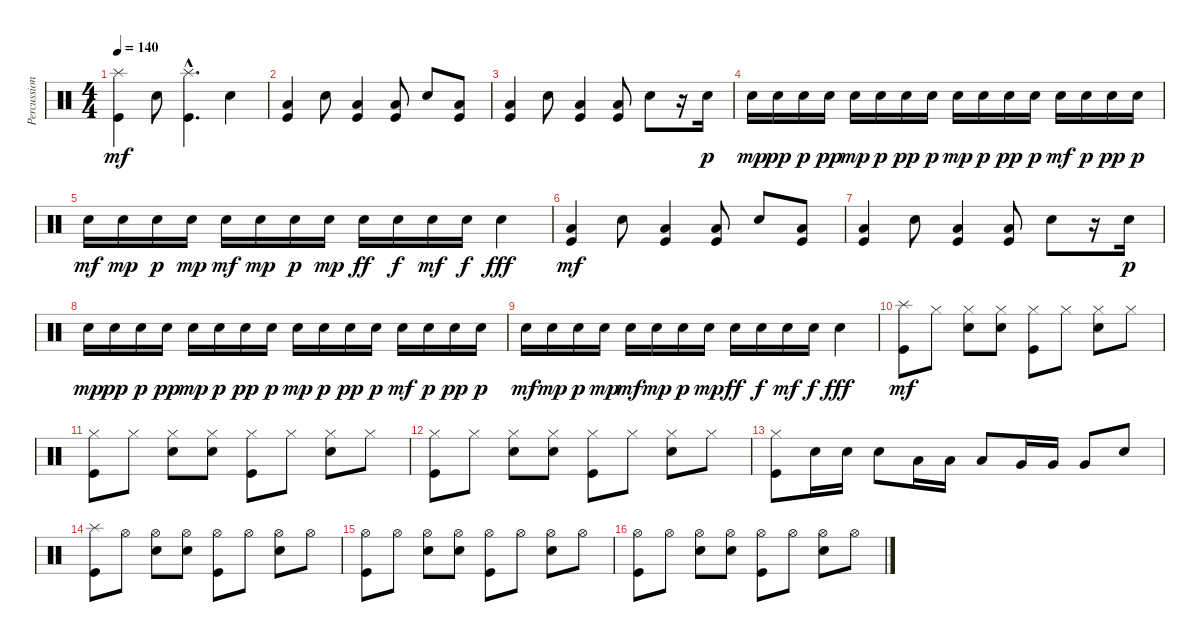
\track ("Percussion" "Percussion") {instrument percussion}
\staff {score}
\articulation defaults
\ts (4 4)
\tempo 140
\clef neutral
\ks c
("Splash (hit)" "Kick (hit)").4{dy mf} "Snare (hit) 2".8 ("Splash (hit)"{hac} "Kick (hit)"{hac}).4{d} "Snare (hit) 2".4 |
("Low Tom (hit)" "Kick (hit)").4 "Snare (hit) 2".8 ("Low Tom (hit)" "Kick (hit)").4 ("Low Tom (hit)" "Kick (hit)").8 "Snare (hit) 2".8 ("Low Tom (hit)" "Kick (hit)").8 |
("Low Tom (hit)" "Kick (hit)").4 "Snare (hit) 2".8 ("Low Tom (hit)" "Kick (hit)").4 ("Low Tom (hit)" "Kick (hit)").8 "Snare (hit) 2".8 r.16 "Snare (hit) 2".16{dy p} |
"Snare (hit) 2".16{dy mp} "Snare (hit) 2".16{dy pp} "Snare (hit) 2".16{dy p} "Snare (hit) 2".16{dy pp} "Snare (hit) 2".16{dy mp} "Snare (hit) 2".16{dy p} "Snare (hit) 2".16{dy pp} "Snare (hit) 2".16{dy p} "Snare (hit) 2".16{dy mp} "Snare (hit) 2".16{dy p} "Snare (hit) 2".16{dy pp} "Snare (hit) 2".16{dy p} "Snare (hit) 2".16{dy mf} "Snare (hit) 2".16{dy p} "Snare (hit) 2".16{dy pp} "Snare (hit) 2".16{dy p} |
"Snare (hit) 2".16{dy mf} "Snare (hit) 2".16{dy mp} "Snare (hit) 2".16{dy p} "Snare (hit) 2".16{dy mp} "Snare (hit) 2".16{dy mf} "Snare (hit) 2".16{dy mp} "Snare (hit) 2".16{dy p} "Snare (hit) 2".16{dy mp} "Snare (hit) 2".16{dy ff} "Snare (hit) 2".16{dy f} "Snare (hit) 2".16{dy mf} "Snare (hit) 2".16{dy f} "Snare (hit) 2".4{dy fff} |
("Low Tom (hit)" "Kick (hit)").4{dy mf} "Snare (hit) 2".8 ("Low Tom (hit)" "Kick (hit)").4 ("Low Tom (hit)" "Kick (hit)").8 "Snare (hit) 2".8 ("Low Tom (hit)" "Kick (hit)").8 |
("Low Tom (hit)" "Kick (hit)").4 "Snare (hit) 2".8 ("Low Tom (hit)" "Kick (hit)").4 ("Low Tom (hit)" "Kick (hit)").8 "Snare (hit) 2".8 r.16 "Snare (hit) 2".16{dy p} |
"Snare (hit) 2".16{dy mp} "Snare (hit) 2".16{dy pp} "Snare (hit) 2".16{dy p} "Snare (hit) 2".16{dy pp} "Snare (hit) 2".16{dy mp} "Snare (hit) 2".16{dy p} "Snare (hit) 2".16{dy pp} "Snare (hit) 2".16{dy p} "Snare (hit) 2".16{dy mp} "Snare (hit) 2".16{dy p} "Snare (hit) 2".16{dy pp} "Snare (hit) 2".16{dy p} "Snare (hit) 2".16{dy mf} "Snare (hit) 2".16{dy p} "Snare (hit) 2".16{dy pp} "Snare (hit) 2".16{dy p} |
"Snare (hit) 2".16{dy mf} "Snare (hit) 2".16{dy mp} "Snare (hit) 2".16{dy p} "Snare (hit) 2".16{dy mp} "Snare (hit) 2".16{dy mf} "Snare (hit) 2".16{dy mp} "Snare (hit) 2".16{dy p} "Snare (hit) 2".16{dy mp} "Snare (hit) 2".16{dy ff} "Snare (hit) 2".16{dy f} "Snare (hit) 2".16{dy mf} "Snare (hit) 2".16{dy f} "Snare (hit) 2".4{dy fff} |
("Splash (hit)" "Kick (hit)").8{dy mf} "Hi-Hat (closed)".8 ("Hi-Hat (closed)" "Snare (hit) 2").8 ("Hi-Hat (closed)" "Snare (hit) 2").8 ("Hi-Hat (closed)" "Kick (hit)").8 "Hi-Hat (closed)".8 ("Hi-Hat (closed)" "Snare (hit) 2").8 "Hi-Hat (closed)".8 |
("Hi-Hat (closed)" "Kick (hit)").8 "Hi-Hat (closed)".8 ("Hi-Hat (closed)" "Snare (hit) 2").8 ("Hi-Hat (closed)" "Snare (hit) 2").8 ("Hi-Hat (closed)" "Kick (hit)").8 "Hi-Hat (closed)".8 ("Hi-Hat (closed)" "Snare (hit) 2").8 "Hi-Hat (closed)".8 |
("Hi-Hat (closed)" "Kick (hit)").8 "Hi-Hat (closed)".8 ("Hi-Hat (closed)" "Snare (hit) 2").8 ("Hi-Hat (closed)" "Snare (hit) 2").8 ("Hi-Hat (closed)" "Kick (hit)").8 "Hi-Hat (closed)".8 ("Hi-Hat (closed)" "Snare (hit) 2").8 "Hi-Hat (closed)".8 |
("Hi-Hat (closed)" "Kick (hit)").8 "Snare (hit) 2".16 "Snare (hit) 2".16 "Snare (hit) 2".8 "Low Tom (hit)".16 "Low Tom (hit)".16 "Low Tom (hit)".8 "Very Low Tom (hit)".16 "Very Low Tom (hit)".16 "Very Low Tom (hit)".8 "Snare (hit) 2".8 |
("Splash (hit)" "Kick (hit)").8 "Hi-Hat (open)".8 ("Hi-Hat (open)" "Snare (hit) 2").8 ("Hi-Hat (open)" "Snare (hit) 2").8 ("Hi-Hat (open)" "Kick (hit)").8 "Hi-Hat (open)".8 ("Hi-Hat (open)" "Snare (hit) 2").8 "Hi-Hat (open)".8 |
("Hi-Hat (open)" "Kick (hit)").8 "Hi-Hat (open)".8 ("Hi-Hat (open)" "Snare (hit) 2").8 ("Hi-Hat (open)" "Snare (hit) 2").8 ("Hi-Hat (open)" "Kick (hit)").8 "Hi-Hat (open)".8 ("Hi-Hat (open)" "Snare (hit) 2").8 "Hi-Hat (open)".8 |
("Hi-Hat (open)" "Kick (hit)").8 "Hi-Hat (open)".8 ("Hi-Hat (open)" "Snare (hit) 2").8 ("Hi-Hat (open)" "Snare (hit) 2").8 ("Hi-Hat (open)" "Kick (hit)").8 "Hi-Hat (open)".8 ("Hi-Hat (open)" "Snare (hit) 2").8 "Hi-Hat (open)".8
